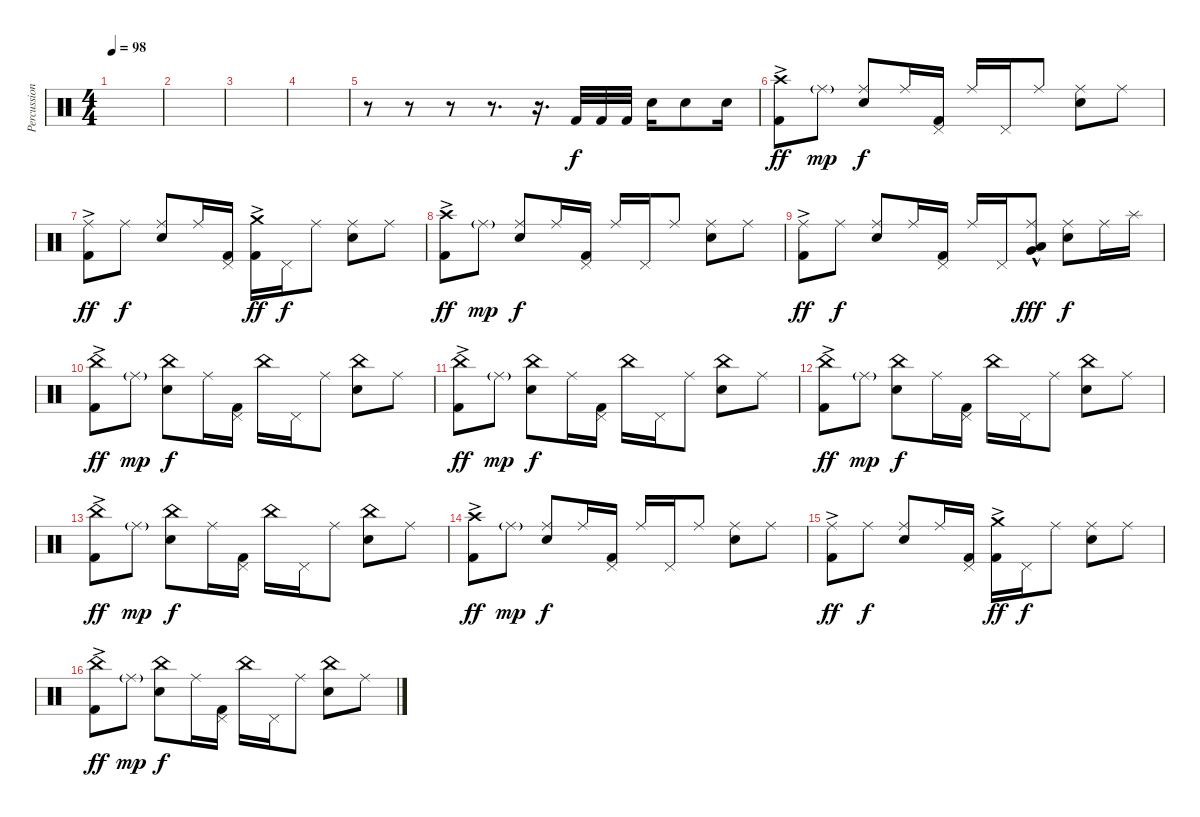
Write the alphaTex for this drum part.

\track ("Percussion" "Percussion") {instrument percussion}
\staff {score}
\articulation defaults
\ts (4 4)
\tempo 98
\clef neutral
\ks c
|
|
|
|
r.8 r.8 r.8 r.8{d} r.16{d} "Kick (hit) 2".32 "Kick (hit) 2".32 "Kick (hit) 2".32 "Electric Snare (hit)".16 "Electric Snare (hit)".8 "Electric Snare (hit)".16 |
("Crash high (hit)" "Kick (hit) 2"{ac}).8{dy ff} "Ride (middle)"{g}.8{dy mp} ("Ride (middle)" "Electric Snare (hit)").8{dy f} "Ride (middle)".16 ("Pedal Hi-Hat (hit)" "Kick (hit) 2").16 "Ride (middle)".16 "Pedal Hi-Hat (hit)".16 "Ride (middle)".8 ("Ride (middle)" "Electric Snare (hit)").8 "Ride (middle)".8 |
("Ride (middle)" "Kick (hit) 2"{ac}).8{dy ff} "Ride (middle)".8{dy f} ("Ride (middle)" "Electric Snare (hit)").8 "Ride (middle)".16 ("Pedal Hi-Hat (hit)" "Kick (hit) 2").16 ("Crash medium (hit)" "Kick (hit) 2"{ac}).16{dy ff} "Pedal Hi-Hat (hit)".16{dy f} "Ride (middle)".8 ("Ride (middle)" "Electric Snare (hit)").8 "Ride (middle)".8 |
("Crash high (hit)" "Kick (hit) 2"{ac}).8{dy ff} "Ride (middle)"{g}.8{dy mp} ("Ride (middle)" "Electric Snare (hit)").8{dy f} "Ride (middle)".16 ("Pedal Hi-Hat (hit)" "Kick (hit) 2").16 "Ride (middle)".16 "Pedal Hi-Hat (hit)".16 "Ride (middle)".8 ("Ride (middle)" "Electric Snare (hit)").8 "Ride (middle)".8 |
("Ride (middle)" "Kick (hit) 2"{ac}).8{dy ff} "Ride (middle)".8{dy f} ("Ride (middle)" "Electric Snare (hit)").8 "Ride (middle)".16 ("Pedal Hi-Hat (hit)" "Kick (hit) 2").16 "Ride (middle)".16 "Pedal Hi-Hat (hit)".16 ("Ride (middle)" "Low Floor Tom (hit)" "Very Low Tom (hit)"{hac}).8{dy fff} ("Ride (middle)" "Electric Snare (hit)").8{dy f} "Ride (middle)".16 "Splash (hit)".16 |
("China (hit)" "Kick (hit) 2"{ac}).8{dy ff} "Ride (middle)"{g}.8{dy mp} ("China (hit)" "Electric Snare (hit)").8{dy f} "Ride (middle)".16 ("Pedal Hi-Hat (hit)" "Kick (hit) 2").16 "China (hit)".16 "Pedal Hi-Hat (hit)".16 "Ride (middle)".8 ("China (hit)" "Electric Snare (hit)").8 "Ride (middle)".8 |
("China (hit)" "Kick (hit) 2"{ac}).8{dy ff} "Ride (middle)"{g}.8{dy mp} ("China (hit)" "Electric Snare (hit)").8{dy f} "Ride (middle)".16 ("Pedal Hi-Hat (hit)" "Kick (hit) 2").16 "China (hit)".16 "Pedal Hi-Hat (hit)".16 "Ride (middle)".8 ("China (hit)" "Electric Snare (hit)").8 "Ride (middle)".8 |
("China (hit)" "Kick (hit) 2"{ac}).8{dy ff} "Ride (middle)"{g}.8{dy mp} ("China (hit)" "Electric Snare (hit)").8{dy f} "Ride (middle)".16 ("Pedal Hi-Hat (hit)" "Kick (hit) 2").16 "China (hit)".16 "Pedal Hi-Hat (hit)".16 "Ride (middle)".8 ("China (hit)" "Electric Snare (hit)").8 "Ride (middle)".8 |
("China (hit)" "Kick (hit) 2"{ac}).8{dy ff} "Ride (middle)"{g}.8{dy mp} ("China (hit)" "Electric Snare (hit)").8{dy f} "Ride (middle)".16 ("Pedal Hi-Hat (hit)" "Kick (hit) 2").16 "China (hit)".16 "Pedal Hi-Hat (hit)".16 "Ride (middle)".8 ("China (hit)" "Electric Snare (hit)").8 "Ride (middle)".8 |
("Crash high (hit)" "Kick (hit) 2"{ac}).8{dy ff} "Ride (middle)"{g}.8{dy mp} ("Ride (middle)" "Electric Snare (hit)").8{dy f} "Ride (middle)".16 ("Pedal Hi-Hat (hit)" "Kick (hit) 2").16 "Ride (middle)".16 "Pedal Hi-Hat (hit)".16 "Ride (middle)".8 ("Ride (middle)" "Electric Snare (hit)").8 "Ride (middle)".8 |
("Ride (middle)" "Kick (hit) 2"{ac}).8{dy ff} "Ride (middle)".8{dy f} ("Ride (middle)" "Electric Snare (hit)").8 "Ride (middle)".16 ("Pedal Hi-Hat (hit)" "Kick (hit) 2").16 ("Crash medium (hit)" "Kick (hit) 2"{ac}).16{dy ff} "Pedal Hi-Hat (hit)".16{dy f} "Ride (middle)".8 ("Ride (middle)" "Electric Snare (hit)").8 "Ride (middle)".8 |
("China (hit)" "Kick (hit) 2"{ac}).8{dy ff} "Ride (middle)"{g}.8{dy mp} ("China (hit)" "Electric Snare (hit)").8{dy f} "Ride (middle)".16 ("Pedal Hi-Hat (hit)" "Kick (hit) 2").16 "China (hit)".16 "Pedal Hi-Hat (hit)".16 "Ride (middle)".8 ("China (hit)" "Electric Snare (hit)").8 "Ride (middle)".8
